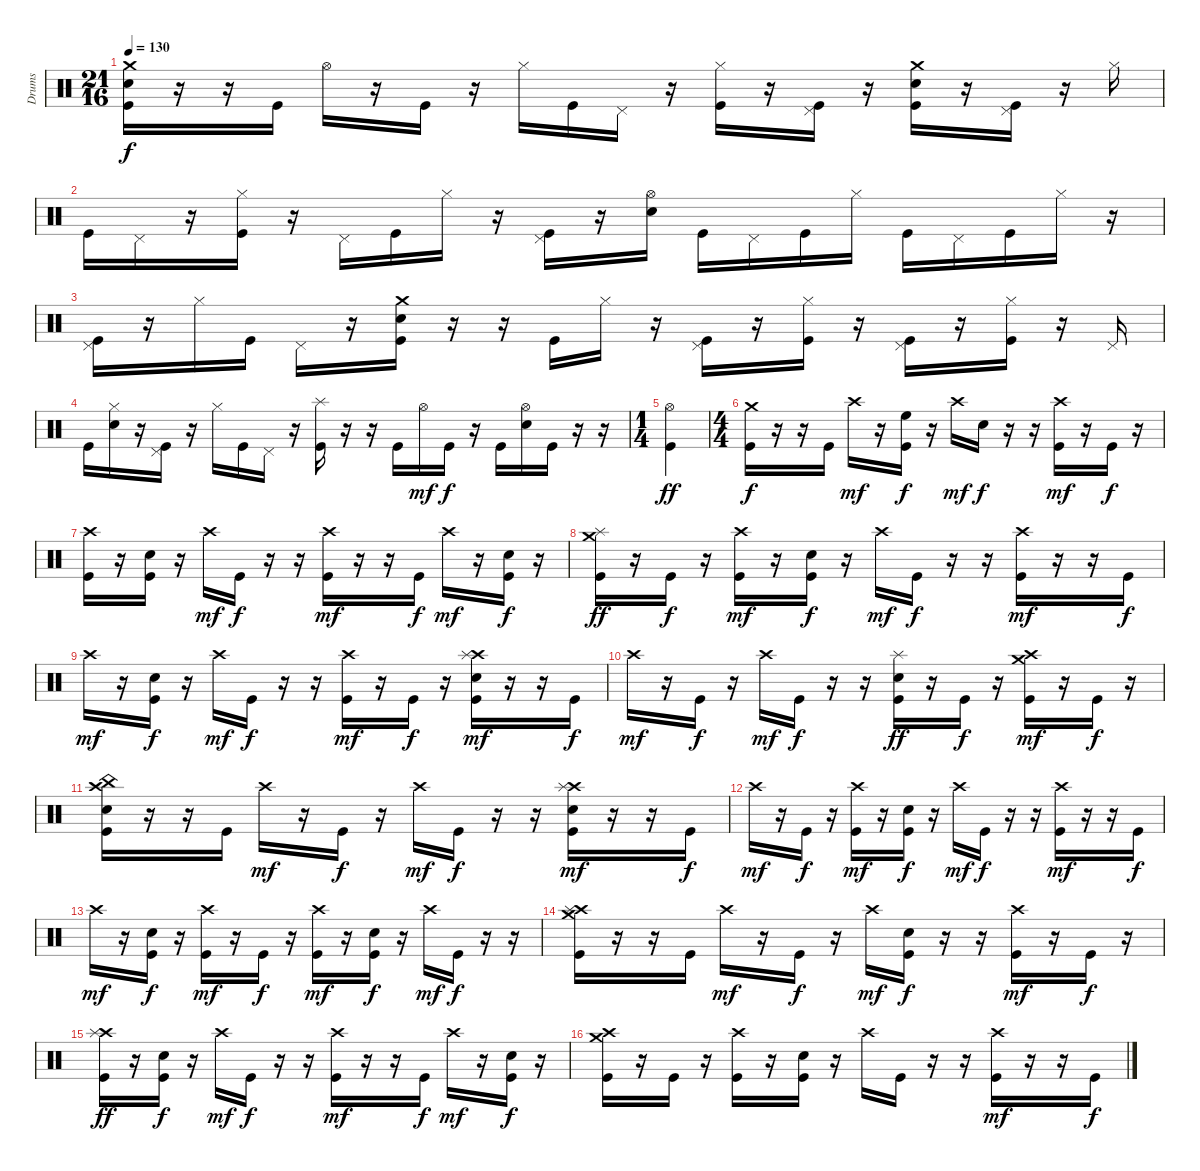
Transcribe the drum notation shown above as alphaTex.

\track ("Drums" "Drums") {instrument percussion}
\staff {score}
\articulation defaults
\ts (21 16)
\tempo 130
\clef neutral
\ks c
("Crash medium (hit)" "Electric Snare (hit)" "Kick (hit)").16{dy f} r.16 r.16 "Kick (hit)".16 "Hi-Hat (open)".16 r.16 "Kick (hit)".16 r.16 "Hi-Hat (closed)".16 "Kick (hit)".16 "Pedal Hi-Hat (hit)".16 r.16 ("Hi-Hat (closed)" "Kick (hit)").16 r.16 ("Pedal Hi-Hat (hit)" "Kick (hit)").16 r.16 ("Crash medium (hit)" "Electric Snare (hit)" "Kick (hit)").16 r.16 ("Pedal Hi-Hat (hit)" "Kick (hit)").16 r.16 "Hi-Hat (closed)".16 |
"Kick (hit)".16 "Pedal Hi-Hat (hit)".16 r.16 ("Hi-Hat (closed)" "Kick (hit)").16 r.16 "Pedal Hi-Hat (hit)".16 "Kick (hit)".16 "Hi-Hat (closed)".16 r.16 ("Pedal Hi-Hat (hit)" "Kick (hit)").16 r.16 ("Hi-Hat (open)" "Electric Snare (hit)").16 "Kick (hit)".16 "Pedal Hi-Hat (hit)".16 "Kick (hit)".16 "Hi-Hat (closed)".16 "Kick (hit)".16 "Pedal Hi-Hat (hit)".16 "Kick (hit)".16 "Hi-Hat (closed)".16 r.16 |
("Pedal Hi-Hat (hit)" "Kick (hit)").16 r.16 "Hi-Hat (closed)".16 "Kick (hit)".16 "Pedal Hi-Hat (hit)".16 r.16 ("Crash medium (hit)" "Electric Snare (hit)" "Kick (hit)").16 r.16 r.16 "Kick (hit)".16 "Hi-Hat (closed)".16 r.16 ("Pedal Hi-Hat (hit)" "Kick (hit)").16 r.16 ("Hi-Hat (closed)" "Kick (hit)").16 r.16 ("Pedal Hi-Hat (hit)" "Kick (hit)").16 r.16 ("Hi-Hat (closed)" "Kick (hit)").16 r.16 "Pedal Hi-Hat (hit)".16 |
"Kick (hit)".16 ("Hi-Hat (closed)" "Electric Snare (hit)").16 r.16 ("Pedal Hi-Hat (hit)" "Kick (hit)").16 r.16 "Hi-Hat (closed)".16 "Kick (hit)".16 "Pedal Hi-Hat (hit)".16 r.16 ("Splash (hit)" "Kick (hit)").16 r.16 r.16 "Kick (hit)".16 "Hi-Hat (open)".16{dy mf} "Kick (hit)".16{dy f} r.16 "Kick (hit)".16 ("Hi-Hat (open)" "Electric Snare (hit)").16 "Kick (hit)".16 r.16 r.16 |
\ts (1 4)
("Hi-Hat (open)" "Kick (hit)").4{dy ff} |
\ts (4 4)
("Crash medium (hit)" "Kick (hit)").16{dy f} r.16 r.16 "Kick (hit)".16 "Crash high (hit)".16{dy mf} r.16 ("High Floor Tom (hit)" "Kick (hit)").16{dy f} r.16 "Crash high (hit)".16{dy mf} "Electric Snare (hit)".16{dy f} r.16 r.16 ("Crash high (hit)" "Kick (hit)").16{dy mf} r.16 "Kick (hit)".16{dy f} r.16 |
("Crash high (hit)" "Kick (hit)").16 r.16 ("Electric Snare (hit)" "Kick (hit)").16 r.16 "Crash high (hit)".16{dy mf} "Kick (hit)".16{dy f} r.16 r.16 ("Crash high (hit)" "Kick (hit)").16{dy mf} r.16 r.16 "Kick (hit)".16{dy f} "Crash high (hit)".16{dy mf} r.16 ("Electric Snare (hit)" "Kick (hit)").16{dy f} r.16 |
("Crash medium (hit)" "Splash (hit)" "Kick (hit)").16{dy ff} r.16 "Kick (hit)".16{dy f} r.16 ("Crash high (hit)" "Kick (hit)").16{dy mf} r.16 ("Electric Snare (hit)" "Kick (hit)").16{dy f} r.16 "Crash high (hit)".16{dy mf} "Kick (hit)".16{dy f} r.16 r.16 ("Crash high (hit)" "Kick (hit)").16{dy mf} r.16 r.16 "Kick (hit)".16{dy f} |
"Crash high (hit)".16{dy mf} r.16 ("Electric Snare (hit)" "Kick (hit)").16{dy f} r.16 "Crash high (hit)".16{dy mf} "Kick (hit)".16{dy f} r.16 r.16 ("Crash high (hit)" "Kick (hit)").16{dy mf} r.16 "Kick (hit)".16{dy f} r.16 ("Crash high (hit)" "Splash (hit)" "Electric Snare (hit)" "Kick (hit)").16{dy mf} r.16 r.16 "Kick (hit)".16{dy f} |
"Crash high (hit)".16{dy mf} r.16 "Kick (hit)".16{dy f} r.16 "Crash high (hit)".16{dy mf} "Kick (hit)".16{dy f} r.16 r.16 ("Splash (hit)" "Electric Snare (hit)" "Kick (hit)").16{dy ff} r.16 "Kick (hit)".16{dy f} r.16 ("Crash high (hit)" "Crash medium (hit)" "Kick (hit)").16{dy mf} r.16 "Kick (hit)".16{dy f} r.16 |
("Crash high (hit)" "China (hit)" "Electric Snare (hit)" "Kick (hit)").16 r.16 r.16 "Kick (hit)".16 "Crash high (hit)".16{dy mf} r.16 "Kick (hit)".16{dy f} r.16 "Crash high (hit)".16{dy mf} "Kick (hit)".16{dy f} r.16 r.16 ("Crash high (hit)" "Splash (hit)" "Electric Snare (hit)" "Kick (hit)").16{dy mf} r.16 r.16 "Kick (hit)".16{dy f} |
"Crash high (hit)".16{dy mf} r.16 "Kick (hit)".16{dy f} r.16 ("Crash high (hit)" "Kick (hit)").16{dy mf} r.16 ("Electric Snare (hit)" "Kick (hit)").16{dy f} r.16 "Crash high (hit)".16{dy mf} "Kick (hit)".16{dy f} r.16 r.16 ("Crash high (hit)" "Kick (hit)").16{dy mf} r.16 r.16 "Kick (hit)".16{dy f} |
"Crash high (hit)".16{dy mf} r.16 ("Electric Snare (hit)" "Kick (hit)").16{dy f} r.16 ("Crash high (hit)" "Kick (hit)").16{dy mf} r.16 "Kick (hit)".16{dy f} r.16 ("Crash high (hit)" "Kick (hit)").16{dy mf} r.16 ("Electric Snare (hit)" "Kick (hit)").16{dy f} r.16 "Crash high (hit)".16{dy mf} "Kick (hit)".16{dy f} r.16 r.16 |
("Crash high (hit)" "Splash (hit)" "Crash medium (hit)" "Kick (hit)").16 r.16 r.16 "Kick (hit)".16 "Crash high (hit)".16{dy mf} r.16 "Kick (hit)".16{dy f} r.16 "Crash high (hit)".16{dy mf} ("Electric Snare (hit)" "Kick (hit)").16{dy f} r.16 r.16 ("Crash high (hit)" "Kick (hit)").16{dy mf} r.16 "Kick (hit)".16{dy f} r.16 |
("Crash high (hit)" "Splash (hit)" "Kick (hit)").16{dy ff} r.16 ("Electric Snare (hit)" "Kick (hit)").16{dy f} r.16 "Crash high (hit)".16{dy mf} "Kick (hit)".16{dy f} r.16 r.16 ("Crash high (hit)" "Kick (hit)").16{dy mf} r.16 r.16 "Kick (hit)".16{dy f} "Crash high (hit)".16{dy mf} r.16 ("Electric Snare (hit)" "Kick (hit)").16{dy f} r.16 |
("Crash medium (hit)" "Crash high (hit)" "Kick (hit)").16 r.16 "Kick (hit)".16 r.16 ("Crash high (hit)" "Kick (hit)").16 r.16 ("Electric Snare (hit)" "Kick (hit)").16 r.16 "Crash high (hit)".16 "Kick (hit)".16 r.16 r.16 ("Crash high (hit)" "Kick (hit)").16{dy mf} r.16 r.16 "Kick (hit)".16{dy f}
